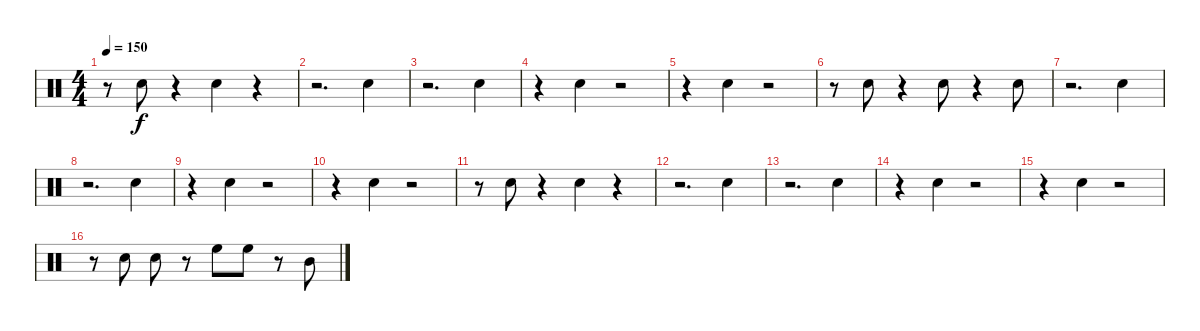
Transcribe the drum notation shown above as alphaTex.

\track "" {instrument percussion}
\staff {score}
\articulation defaults
\ts (4 4)
\tempo 150
\clef neutral
\ks c
r.8{dy f} "Electric Snare (hit)".8 r.4 "Electric Snare (hit)".4 r.4 |
r.2{d} "Electric Snare (hit)".4 |
r.2{d} "Electric Snare (hit)".4 |
r.4 "Electric Snare (hit)".4 r.2 |
r.4 "Electric Snare (hit)".4 r.2 |
r.8 "Electric Snare (hit)".8 r.4 "Electric Snare (hit)".8 r.4 "Electric Snare (hit)".8 |
r.2{d} "Electric Snare (hit)".4 |
r.2{d} "Electric Snare (hit)".4 |
r.4 "Electric Snare (hit)".4 r.2 |
r.4 "Electric Snare (hit)".4 r.2 |
r.8 "Electric Snare (hit)".8 r.4 "Electric Snare (hit)".4 r.4 |
r.2{d} "Electric Snare (hit)".4 |
r.2{d} "Electric Snare (hit)".4 |
r.4 "Electric Snare (hit)".4 r.2 |
r.4 "Electric Snare (hit)".4 r.2 |
r.8 "Electric Snare (hit)".8 "Electric Snare (hit)".8 r.8 "High Floor Tom (hit)".8 "High Floor Tom (hit)".8 r.8 "Mid Tom (hit)".8
